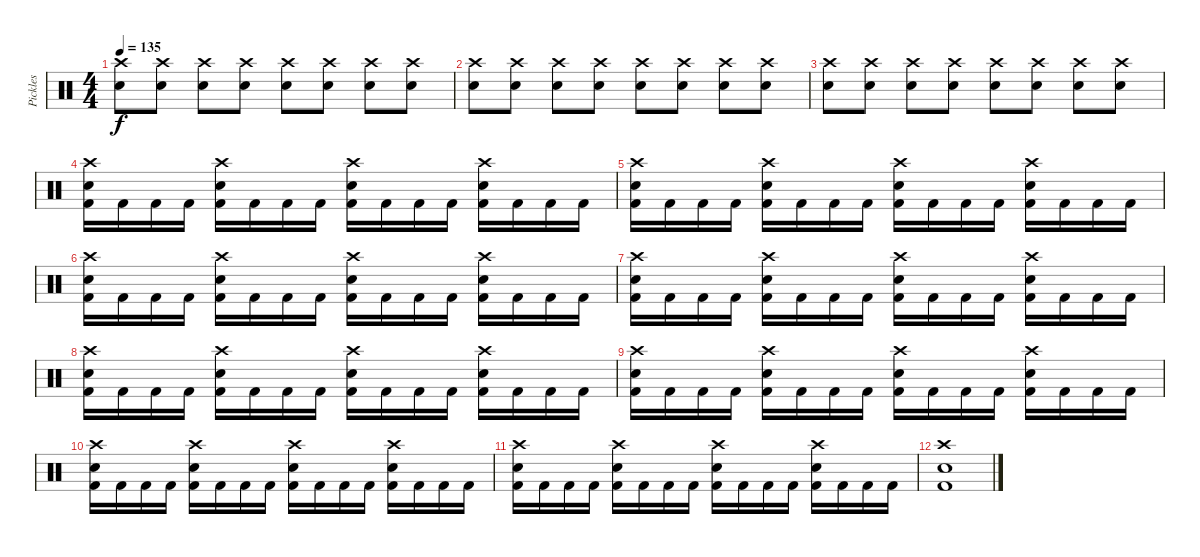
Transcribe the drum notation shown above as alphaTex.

\track ("Pickles" "Pickles") {instrument percussion}
\staff {score}
\articulation defaults
\ts (4 4)
\tempo 135
\clef neutral
\ks c
("Crash high (hit)" "Electric Snare (hit)").8{dy f} ("Crash high (hit)" "Electric Snare (hit)").8 ("Crash high (hit)" "Electric Snare (hit)").8 ("Crash high (hit)" "Electric Snare (hit)").8 ("Crash high (hit)" "Electric Snare (hit)").8 ("Crash high (hit)" "Electric Snare (hit)").8 ("Crash high (hit)" "Electric Snare (hit)").8 ("Crash high (hit)" "Electric Snare (hit)").8 |
("Crash high (hit)" "Electric Snare (hit)").8 ("Crash high (hit)" "Electric Snare (hit)").8 ("Crash high (hit)" "Electric Snare (hit)").8 ("Crash high (hit)" "Electric Snare (hit)").8 ("Crash high (hit)" "Electric Snare (hit)").8 ("Crash high (hit)" "Electric Snare (hit)").8 ("Crash high (hit)" "Electric Snare (hit)").8 ("Crash high (hit)" "Electric Snare (hit)").8 |
("Crash high (hit)" "Electric Snare (hit)").8 ("Crash high (hit)" "Electric Snare (hit)").8 ("Crash high (hit)" "Electric Snare (hit)").8 ("Crash high (hit)" "Electric Snare (hit)").8 ("Crash high (hit)" "Electric Snare (hit)").8 ("Crash high (hit)" "Electric Snare (hit)").8 ("Crash high (hit)" "Electric Snare (hit)").8 ("Crash high (hit)" "Electric Snare (hit)").8 |
("Electric Snare (hit)" "Crash high (hit)" "Kick (hit) 2").16 "Kick (hit) 2".16 "Kick (hit) 2".16 "Kick (hit) 2".16 ("Electric Snare (hit)" "Crash high (hit)" "Kick (hit) 2").16 "Kick (hit) 2".16 "Kick (hit) 2".16 "Kick (hit) 2".16 ("Electric Snare (hit)" "Crash high (hit)" "Kick (hit) 2").16 "Kick (hit) 2".16 "Kick (hit) 2".16 "Kick (hit) 2".16 ("Electric Snare (hit)" "Crash high (hit)" "Kick (hit) 2").16 "Kick (hit) 2".16 "Kick (hit) 2".16 "Kick (hit) 2".16 |
("Electric Snare (hit)" "Crash high (hit)" "Kick (hit) 2").16 "Kick (hit) 2".16 "Kick (hit) 2".16 "Kick (hit) 2".16 ("Electric Snare (hit)" "Crash high (hit)" "Kick (hit) 2").16 "Kick (hit) 2".16 "Kick (hit) 2".16 "Kick (hit) 2".16 ("Electric Snare (hit)" "Crash high (hit)" "Kick (hit) 2").16 "Kick (hit) 2".16 "Kick (hit) 2".16 "Kick (hit) 2".16 ("Electric Snare (hit)" "Crash high (hit)" "Kick (hit) 2").16 "Kick (hit) 2".16 "Kick (hit) 2".16 "Kick (hit) 2".16 |
("Electric Snare (hit)" "Crash high (hit)" "Kick (hit) 2").16 "Kick (hit) 2".16 "Kick (hit) 2".16 "Kick (hit) 2".16 ("Electric Snare (hit)" "Crash high (hit)" "Kick (hit) 2").16 "Kick (hit) 2".16 "Kick (hit) 2".16 "Kick (hit) 2".16 ("Electric Snare (hit)" "Crash high (hit)" "Kick (hit) 2").16 "Kick (hit) 2".16 "Kick (hit) 2".16 "Kick (hit) 2".16 ("Electric Snare (hit)" "Crash high (hit)" "Kick (hit) 2").16 "Kick (hit) 2".16 "Kick (hit) 2".16 "Kick (hit) 2".16 |
("Electric Snare (hit)" "Crash high (hit)" "Kick (hit) 2").16 "Kick (hit) 2".16 "Kick (hit) 2".16 "Kick (hit) 2".16 ("Electric Snare (hit)" "Crash high (hit)" "Kick (hit) 2").16 "Kick (hit) 2".16 "Kick (hit) 2".16 "Kick (hit) 2".16 ("Electric Snare (hit)" "Crash high (hit)" "Kick (hit) 2").16 "Kick (hit) 2".16 "Kick (hit) 2".16 "Kick (hit) 2".16 ("Electric Snare (hit)" "Crash high (hit)" "Kick (hit) 2").16 "Kick (hit) 2".16 "Kick (hit) 2".16 "Kick (hit) 2".16 |
("Electric Snare (hit)" "Crash high (hit)" "Kick (hit) 2").16 "Kick (hit) 2".16 "Kick (hit) 2".16 "Kick (hit) 2".16 ("Electric Snare (hit)" "Crash high (hit)" "Kick (hit) 2").16 "Kick (hit) 2".16 "Kick (hit) 2".16 "Kick (hit) 2".16 ("Electric Snare (hit)" "Crash high (hit)" "Kick (hit) 2").16 "Kick (hit) 2".16 "Kick (hit) 2".16 "Kick (hit) 2".16 ("Electric Snare (hit)" "Crash high (hit)" "Kick (hit) 2").16 "Kick (hit) 2".16 "Kick (hit) 2".16 "Kick (hit) 2".16 |
("Electric Snare (hit)" "Crash high (hit)" "Kick (hit) 2").16 "Kick (hit) 2".16 "Kick (hit) 2".16 "Kick (hit) 2".16 ("Electric Snare (hit)" "Crash high (hit)" "Kick (hit) 2").16 "Kick (hit) 2".16 "Kick (hit) 2".16 "Kick (hit) 2".16 ("Electric Snare (hit)" "Crash high (hit)" "Kick (hit) 2").16 "Kick (hit) 2".16 "Kick (hit) 2".16 "Kick (hit) 2".16 ("Electric Snare (hit)" "Crash high (hit)" "Kick (hit) 2").16 "Kick (hit) 2".16 "Kick (hit) 2".16 "Kick (hit) 2".16 |
("Electric Snare (hit)" "Crash high (hit)" "Kick (hit) 2").16 "Kick (hit) 2".16 "Kick (hit) 2".16 "Kick (hit) 2".16 ("Electric Snare (hit)" "Crash high (hit)" "Kick (hit) 2").16 "Kick (hit) 2".16 "Kick (hit) 2".16 "Kick (hit) 2".16 ("Electric Snare (hit)" "Crash high (hit)" "Kick (hit) 2").16 "Kick (hit) 2".16 "Kick (hit) 2".16 "Kick (hit) 2".16 ("Electric Snare (hit)" "Crash high (hit)" "Kick (hit) 2").16 "Kick (hit) 2".16 "Kick (hit) 2".16 "Kick (hit) 2".16 |
("Electric Snare (hit)" "Crash high (hit)" "Kick (hit) 2").16 "Kick (hit) 2".16 "Kick (hit) 2".16 "Kick (hit) 2".16 ("Electric Snare (hit)" "Crash high (hit)" "Kick (hit) 2").16 "Kick (hit) 2".16 "Kick (hit) 2".16 "Kick (hit) 2".16 ("Electric Snare (hit)" "Crash high (hit)" "Kick (hit) 2").16 "Kick (hit) 2".16 "Kick (hit) 2".16 "Kick (hit) 2".16 ("Electric Snare (hit)" "Crash high (hit)" "Kick (hit) 2").16 "Kick (hit) 2".16 "Kick (hit) 2".16 "Kick (hit) 2".16 |
("Crash high (hit)" "Electric Snare (hit)" "Kick (hit) 2").1
